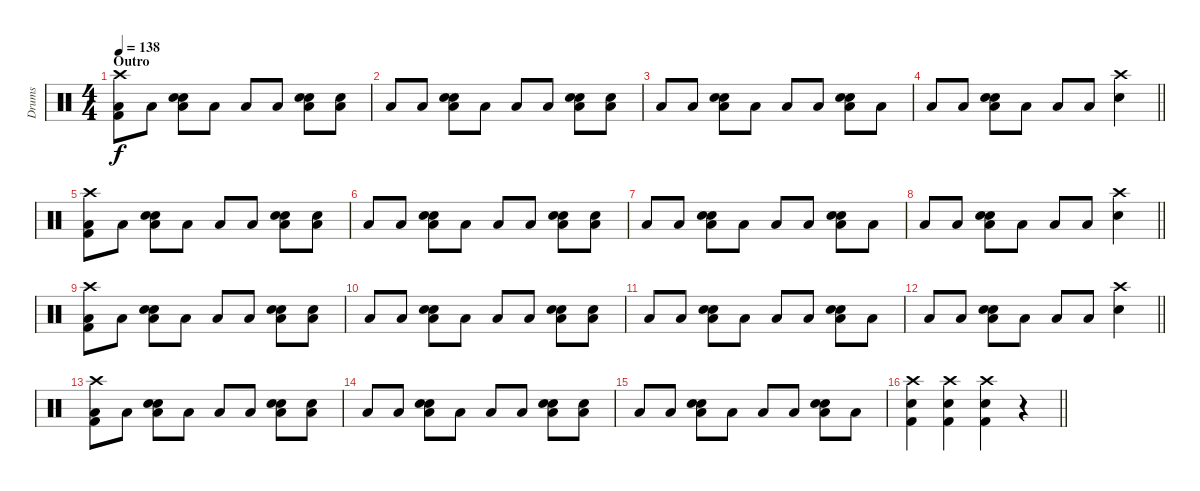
\track ("Drums" "Drums") {instrument percussion}
\staff {score}
\articulation defaults
\ts (4 4)
\section ("" "Outro")
\tempo 138
\clef neutral
\ks c
("Crash high (hit)" "Low Floor Tom (hit)" "Kick (hit) 2").8{dy f} "Low Floor Tom (hit)".8 ("Snare (hit) 2" "Hand Clap (hit)" "Low Floor Tom (hit)").8 "Low Floor Tom (hit)".8 "Low Floor Tom (hit)".8 "Low Floor Tom (hit)".8 ("Snare (hit) 2" "Hand Clap (hit)" "Low Floor Tom (hit)").8 ("Snare (hit) 2" "Low Floor Tom (hit)").8 |
"Low Floor Tom (hit)".8 "Low Floor Tom (hit)".8 ("Snare (hit) 2" "Hand Clap (hit)" "Low Floor Tom (hit)").8 "Low Floor Tom (hit)".8 "Low Floor Tom (hit)".8 "Low Floor Tom (hit)".8 ("Snare (hit) 2" "Hand Clap (hit)" "Low Floor Tom (hit)").8 ("Snare (hit) 2" "Low Floor Tom (hit)").8 |
"Low Floor Tom (hit)".8 "Low Floor Tom (hit)".8 ("Snare (hit) 2" "Hand Clap (hit)" "Low Floor Tom (hit)").8 "Low Floor Tom (hit)".8 "Low Floor Tom (hit)".8 "Low Floor Tom (hit)".8 ("Snare (hit) 2" "Hand Clap (hit)" "Low Floor Tom (hit)").8 "Low Floor Tom (hit)".8 |
\barLineRight lightlight "Low Floor Tom (hit)".8 "Low Floor Tom (hit)".8
("Snare (hit) 2" "Hand Clap (hit)" "Low Floor Tom (hit)").8 "Low Floor Tom (hit)".8 "Low Floor Tom (hit)".8 "Low Floor Tom (hit)".8 ("Crash high (hit)" "Snare (hit) 2").4 |
("Crash high (hit)" "Low Floor Tom (hit)" "Kick (hit) 2").8 "Low Floor Tom (hit)".8 ("Snare (hit) 2" "Hand Clap (hit)" "Low Floor Tom (hit)").8 "Low Floor Tom (hit)".8 "Low Floor Tom (hit)".8 "Low Floor Tom (hit)".8 ("Snare (hit) 2" "Hand Clap (hit)" "Low Floor Tom (hit)").8 ("Snare (hit) 2" "Low Floor Tom (hit)").8 |
"Low Floor Tom (hit)".8 "Low Floor Tom (hit)".8 ("Snare (hit) 2" "Hand Clap (hit)" "Low Floor Tom (hit)").8 "Low Floor Tom (hit)".8 "Low Floor Tom (hit)".8 "Low Floor Tom (hit)".8 ("Snare (hit) 2" "Hand Clap (hit)" "Low Floor Tom (hit)").8 ("Snare (hit) 2" "Low Floor Tom (hit)").8 |
"Low Floor Tom (hit)".8 "Low Floor Tom (hit)".8 ("Snare (hit) 2" "Hand Clap (hit)" "Low Floor Tom (hit)").8 "Low Floor Tom (hit)".8 "Low Floor Tom (hit)".8 "Low Floor Tom (hit)".8 ("Snare (hit) 2" "Hand Clap (hit)" "Low Floor Tom (hit)").8 "Low Floor Tom (hit)".8 |
\barLineRight lightlight "Low Floor Tom (hit)".8 "Low Floor Tom (hit)".8
("Snare (hit) 2" "Hand Clap (hit)" "Low Floor Tom (hit)").8 "Low Floor Tom (hit)".8 "Low Floor Tom (hit)".8 "Low Floor Tom (hit)".8 ("Crash high (hit)" "Snare (hit) 2").4 |
("Crash high (hit)" "Low Floor Tom (hit)" "Kick (hit) 2").8 "Low Floor Tom (hit)".8 ("Snare (hit) 2" "Hand Clap (hit)" "Low Floor Tom (hit)").8 "Low Floor Tom (hit)".8 "Low Floor Tom (hit)".8 "Low Floor Tom (hit)".8 ("Snare (hit) 2" "Hand Clap (hit)" "Low Floor Tom (hit)").8 ("Snare (hit) 2" "Low Floor Tom (hit)").8 |
"Low Floor Tom (hit)".8 "Low Floor Tom (hit)".8 ("Snare (hit) 2" "Hand Clap (hit)" "Low Floor Tom (hit)").8 "Low Floor Tom (hit)".8 "Low Floor Tom (hit)".8 "Low Floor Tom (hit)".8 ("Snare (hit) 2" "Hand Clap (hit)" "Low Floor Tom (hit)").8 ("Snare (hit) 2" "Low Floor Tom (hit)").8 |
"Low Floor Tom (hit)".8 "Low Floor Tom (hit)".8 ("Snare (hit) 2" "Hand Clap (hit)" "Low Floor Tom (hit)").8 "Low Floor Tom (hit)".8 "Low Floor Tom (hit)".8 "Low Floor Tom (hit)".8 ("Snare (hit) 2" "Hand Clap (hit)" "Low Floor Tom (hit)").8 "Low Floor Tom (hit)".8 |
\barLineRight lightlight "Low Floor Tom (hit)".8 "Low Floor Tom (hit)".8
("Snare (hit) 2" "Hand Clap (hit)" "Low Floor Tom (hit)").8 "Low Floor Tom (hit)".8 "Low Floor Tom (hit)".8 "Low Floor Tom (hit)".8 ("Crash high (hit)" "Snare (hit) 2").4 |
("Crash high (hit)" "Low Floor Tom (hit)" "Kick (hit) 2").8 "Low Floor Tom (hit)".8 ("Snare (hit) 2" "Hand Clap (hit)" "Low Floor Tom (hit)").8 "Low Floor Tom (hit)".8 "Low Floor Tom (hit)".8 "Low Floor Tom (hit)".8 ("Snare (hit) 2" "Hand Clap (hit)" "Low Floor Tom (hit)").8 ("Snare (hit) 2" "Low Floor Tom (hit)").8 |
"Low Floor Tom (hit)".8 "Low Floor Tom (hit)".8 ("Snare (hit) 2" "Hand Clap (hit)" "Low Floor Tom (hit)").8 "Low Floor Tom (hit)".8 "Low Floor Tom (hit)".8 "Low Floor Tom (hit)".8 ("Snare (hit) 2" "Hand Clap (hit)" "Low Floor Tom (hit)").8 ("Snare (hit) 2" "Low Floor Tom (hit)").8 |
"Low Floor Tom (hit)".8 "Low Floor Tom (hit)".8 ("Snare (hit) 2" "Hand Clap (hit)" "Low Floor Tom (hit)").8 "Low Floor Tom (hit)".8 "Low Floor Tom (hit)".8 "Low Floor Tom (hit)".8 ("Snare (hit) 2" "Hand Clap (hit)" "Low Floor Tom (hit)").8 "Low Floor Tom (hit)".8 |
\barLineRight lightlight
("Crash high (hit)" "Snare (hit) 2" "Kick (hit) 2").4 ("Crash high (hit)" "Snare (hit) 2" "Kick (hit) 2").4 ("Crash high (hit)" "Snare (hit) 2" "Kick (hit) 2").4 r.4
